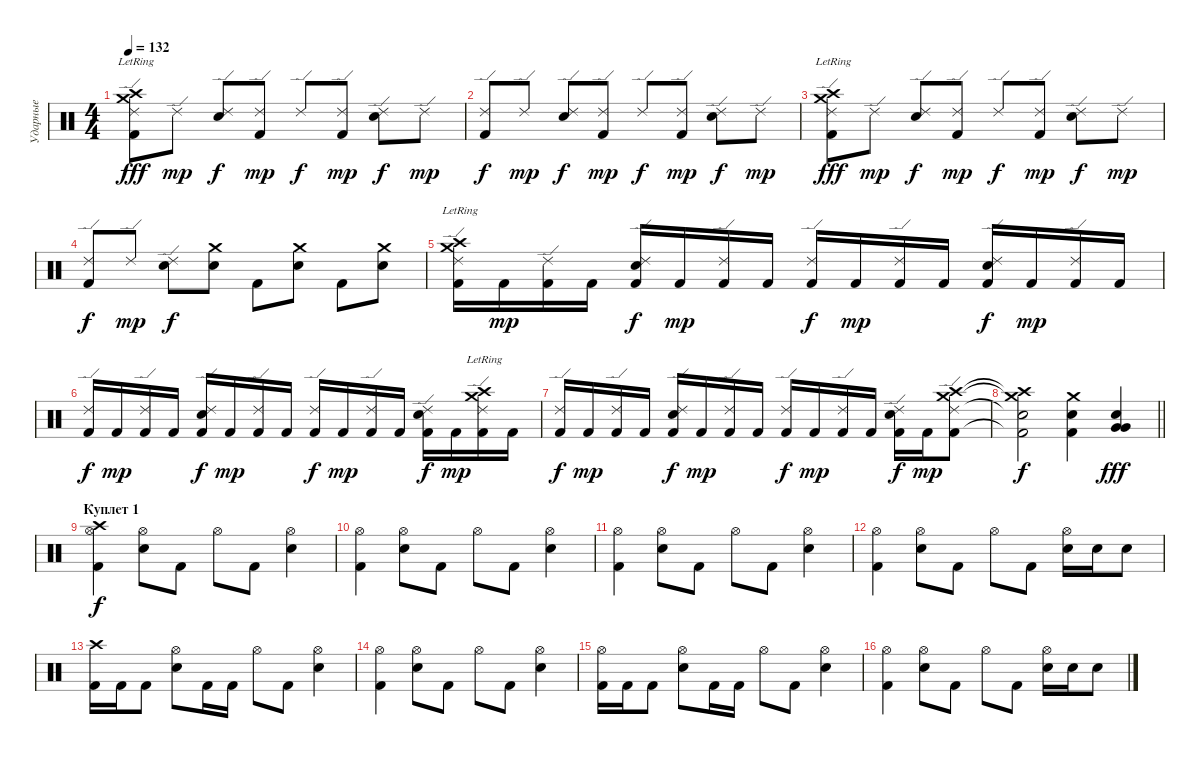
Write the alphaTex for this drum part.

\track ("Ударные" "Ударные") {instrument percussion}
\staff {score}
\articulation defaults
\ts (4 4)
\tempo 132
\clef neutral
\ks c
("Crash medium (hit)" "Crash high (hit)"{lr} "Kick (hit) 2" "Ride (edge) 2").8{dy fff} "Ride (edge) 2".8{dy mp} ("Electric Snare (hit)" "Ride (edge) 2").8{dy f} ("Kick (hit) 2" "Ride (edge) 2").8{dy mp} "Ride (edge) 2".8{dy f} ("Kick (hit) 2" "Ride (edge) 2").8{dy mp} ("Electric Snare (hit)" "Ride (edge) 2").8{dy f} "Ride (edge) 2".8{dy mp} |
("Kick (hit) 2" "Ride (edge) 2").8{dy f} "Ride (edge) 2".8{dy mp} ("Electric Snare (hit)" "Ride (edge) 2").8{dy f} ("Kick (hit) 2" "Ride (edge) 2").8{dy mp} "Ride (edge) 2".8{dy f} ("Kick (hit) 2" "Ride (edge) 2").8{dy mp} ("Electric Snare (hit)" "Ride (edge) 2").8{dy f} "Ride (edge) 2".8{dy mp} |
("Crash medium (hit)" "Crash high (hit)"{lr} "Kick (hit) 2" "Ride (edge) 2").8{dy fff} "Ride (edge) 2".8{dy mp} ("Electric Snare (hit)" "Ride (edge) 2").8{dy f} ("Kick (hit) 2" "Ride (edge) 2").8{dy mp} "Ride (edge) 2".8{dy f} ("Kick (hit) 2" "Ride (edge) 2").8{dy mp} ("Electric Snare (hit)" "Ride (edge) 2").8{dy f} "Ride (edge) 2".8{dy mp} |
("Kick (hit) 2" "Ride (edge) 2").8{dy f} "Ride (edge) 2".8{dy mp} ("Electric Snare (hit)" "Ride (edge) 2").8{dy f} ("Crash medium (hit)" "Electric Snare (hit)").8 "Kick (hit) 2".8 ("Crash medium (hit)" "Electric Snare (hit)").8 "Kick (hit) 2".8 ("Crash medium (hit)" "Electric Snare (hit)").8 |
("Crash medium (hit)"{lr} "Crash high (hit)"{lr} "Kick (hit) 2" "Ride (edge) 2").16 "Kick (hit) 2".16{dy mp} ("Kick (hit) 2" "Ride (edge) 2").16 "Kick (hit) 2".16 ("Electric Snare (hit)" "Kick (hit) 2" "Ride (edge) 2").16{dy f} "Kick (hit) 2".16{dy mp} ("Kick (hit) 2" "Ride (edge) 2").16 "Kick (hit) 2".16 ("Kick (hit) 2" "Ride (edge) 2").16{dy f} "Kick (hit) 2".16{dy mp} ("Kick (hit) 2" "Ride (edge) 2").16 "Kick (hit) 2".16 ("Electric Snare (hit)" "Kick (hit) 2" "Ride (edge) 2").16{dy f} "Kick (hit) 2".16{dy mp} ("Kick (hit) 2" "Ride (edge) 2").16 "Kick (hit) 2".16 |
("Kick (hit) 2" "Ride (edge) 2").16{dy f} "Kick (hit) 2".16{dy mp} ("Kick (hit) 2" "Ride (edge) 2").16 "Kick (hit) 2".16 ("Electric Snare (hit)" "Kick (hit) 2" "Ride (edge) 2").16{dy f} "Kick (hit) 2".16{dy mp} ("Kick (hit) 2" "Ride (edge) 2").16 "Kick (hit) 2".16 ("Kick (hit) 2" "Ride (edge) 2").16{dy f} "Kick (hit) 2".16{dy mp} ("Kick (hit) 2" "Ride (edge) 2").16 "Kick (hit) 2".16 ("Electric Snare (hit)" "Kick (hit) 2" "Ride (edge) 2").16{dy f} "Kick (hit) 2".16{dy mp} ("Crash high (hit)"{lr} "Crash medium (hit)"{lr} "Kick (hit) 2" "Ride (edge) 2").16 "Kick (hit) 2".16 |
("Kick (hit) 2" "Ride (edge) 2").16{dy f} "Kick (hit) 2".16{dy mp} ("Kick (hit) 2" "Ride (edge) 2").16 "Kick (hit) 2".16 ("Electric Snare (hit)" "Kick (hit) 2" "Ride (edge) 2").16{dy f} "Kick (hit) 2".16{dy mp} ("Kick (hit) 2" "Ride (edge) 2").16 "Kick (hit) 2".16 ("Kick (hit) 2" "Ride (edge) 2").16{dy f} "Kick (hit) 2".16{dy mp} ("Kick (hit) 2" "Ride (edge) 2").16 "Kick (hit) 2".16 ("Electric Snare (hit)" "Kick (hit) 2" "Ride (edge) 2").16{dy f} "Kick (hit) 2".16{dy mp} ("Crash medium (hit)" "Crash high (hit)" "Kick (hit) 2" "Ride (edge) 2").8 |
\barLineRight lightlight
("Crash medium (hit)"{t} "Crash high (hit)"{t} "Kick (hit) 2"{t} "Snare (hit)"{t}).2{dy f} ("Crash medium (hit)" "Electric Snare (hit)" "Kick (hit) 2").4 ("Electric Snare (hit)" "Very Low Tom (hit)" "Very Low Tom (hit)").4{dy fff} |
\section ("" "Куплет 1")
("Crash high (hit)" "Kick (hit) 2" "Hi-Hat (open)").4{dy f} ("Electric Snare (hit)" "Hi-Hat (open)").8 "Kick (hit) 2".8 "Hi-Hat (open)".8 "Kick (hit) 2".8 ("Electric Snare (hit)" "Hi-Hat (open)").4 |
("Kick (hit) 2" "Hi-Hat (open)").4 ("Electric Snare (hit)" "Hi-Hat (open)").8 "Kick (hit) 2".8 "Hi-Hat (open)".8 "Kick (hit) 2".8 ("Electric Snare (hit)" "Hi-Hat (open)").4 |
("Kick (hit) 2" "Hi-Hat (open)").4 ("Electric Snare (hit)" "Hi-Hat (open)").8 "Kick (hit) 2".8 "Hi-Hat (open)".8 "Kick (hit) 2".8 ("Electric Snare (hit)" "Hi-Hat (open)").4 |
("Kick (hit) 2" "Hi-Hat (open)").4 ("Electric Snare (hit)" "Hi-Hat (open)").8 "Kick (hit) 2".8 "Hi-Hat (open)".8 "Kick (hit) 2".8 ("Electric Snare (hit)" "Hi-Hat (open)").16 "Electric Snare (hit)".16 "Electric Snare (hit)".8 |
("Crash high (hit)" "Kick (hit) 2").16 "Kick (hit) 2".16 "Kick (hit) 2".8 ("Electric Snare (hit)" "Hi-Hat (open)").8 "Kick (hit) 2".16 "Kick (hit) 2".16 "Hi-Hat (open)".8 "Kick (hit) 2".8 ("Electric Snare (hit)" "Hi-Hat (open)").4 |
("Kick (hit) 2" "Hi-Hat (open)").4 ("Electric Snare (hit)" "Hi-Hat (open)").8 "Kick (hit) 2".8 "Hi-Hat (open)".8 "Kick (hit) 2".8 ("Electric Snare (hit)" "Hi-Hat (open)").4 |
("Kick (hit) 2" "Hi-Hat (open)").16 "Kick (hit) 2".16 "Kick (hit) 2".8 ("Electric Snare (hit)" "Hi-Hat (open)").8 "Kick (hit) 2".16 "Kick (hit) 2".16 "Hi-Hat (open)".8 "Kick (hit) 2".8 ("Electric Snare (hit)" "Hi-Hat (open)").4 |
("Kick (hit) 2" "Hi-Hat (open)").4 ("Electric Snare (hit)" "Hi-Hat (open)").8 "Kick (hit) 2".8 "Hi-Hat (open)".8 "Kick (hit) 2".8 ("Electric Snare (hit)" "Hi-Hat (open)").16 "Electric Snare (hit)".16 "Electric Snare (hit)".8
